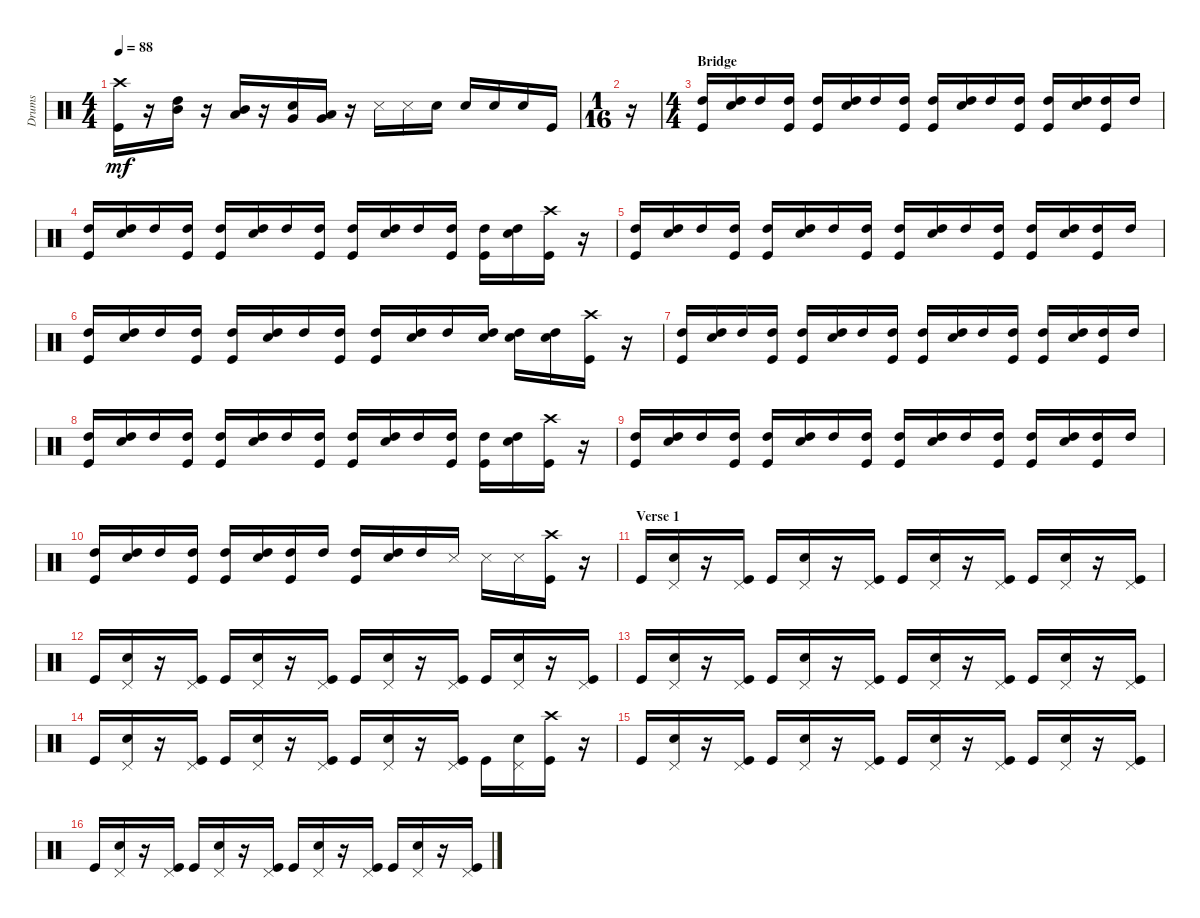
\track ("Drums" "Drums") {instrument percussion}
\staff {score}
\articulation defaults
\ts (4 4)
\tempo 88
\clef neutral
\ks c
("Kick (hit)" "Crash high (hit)").16{dy mf} r.16 ("High Tom (hit)" "Mid Tom (hit)").16 r.16 ("Mid Tom (hit)" "Low Tom (hit)").16 r.16 ("Snare (hit) 2" "Very Low Tom (hit)").16 ("Very Low Tom (hit)" "Low Tom (hit)").16 r.16 "Snare (side stick) 3".16 "Snare (side stick) 3".16 "Snare (hit) 2".16 "Snare (hit) 2".16 "Snare (hit) 2".16 "Snare (hit) 2".16 "Kick (hit)".16 |
\ts (1 16)
r.16 |
\ts (4 4)
\section ("" "Bridge")
("Kick (hit)" "High Tom (hit)").16 ("Snare (hit) 2" "High Tom (hit)").16 "High Tom (hit)".16 ("Kick (hit)" "High Tom (hit)").16 ("Kick (hit)" "High Tom (hit)").16 ("High Tom (hit)" "Snare (hit) 2").16 "High Tom (hit)".16 ("High Tom (hit)" "Kick (hit)").16 ("High Tom (hit)" "Kick (hit)").16 ("High Tom (hit)" "Snare (hit) 2").16 "High Tom (hit)".16 ("Kick (hit)" "High Tom (hit)").16 ("Kick (hit)" "High Tom (hit)").16 ("High Tom (hit)" "Snare (hit) 2").16 ("High Tom (hit)" "Kick (hit)").16 "High Tom (hit)".16 |
("Kick (hit)" "High Tom (hit)").16 ("Snare (hit) 2" "High Tom (hit)").16 "High Tom (hit)".16 ("Kick (hit)" "High Tom (hit)").16 ("Kick (hit)" "High Tom (hit)").16 ("High Tom (hit)" "Snare (hit) 2").16 "High Tom (hit)".16 ("High Tom (hit)" "Kick (hit)").16 ("High Tom (hit)" "Kick (hit)").16 ("High Tom (hit)" "Snare (hit) 2").16 "High Tom (hit)".16 ("Kick (hit)" "High Tom (hit)").16 ("Kick (hit)" "High Tom (hit)").16 ("High Tom (hit)" "Snare (hit) 2").16 ("Kick (hit)" "Crash high (hit)").16 r.16 |
("Kick (hit)" "High Tom (hit)").16 ("Snare (hit) 2" "High Tom (hit)").16 "High Tom (hit)".16 ("Kick (hit)" "High Tom (hit)").16 ("Kick (hit)" "High Tom (hit)").16 ("High Tom (hit)" "Snare (hit) 2").16 "High Tom (hit)".16 ("High Tom (hit)" "Kick (hit)").16 ("High Tom (hit)" "Kick (hit)").16 ("High Tom (hit)" "Snare (hit) 2").16 "High Tom (hit)".16 ("Kick (hit)" "High Tom (hit)").16 ("Kick (hit)" "High Tom (hit)").16 ("High Tom (hit)" "Snare (hit) 2").16 ("Kick (hit)" "High Tom (hit)").16 "High Tom (hit)".16 |
("Kick (hit)" "High Tom (hit)").16 ("Snare (hit) 2" "High Tom (hit)").16 "High Tom (hit)".16 ("Kick (hit)" "High Tom (hit)").16 ("Kick (hit)" "High Tom (hit)").16 ("High Tom (hit)" "Snare (hit) 2").16 "High Tom (hit)".16 ("High Tom (hit)" "Kick (hit)").16 ("High Tom (hit)" "Kick (hit)").16 ("High Tom (hit)" "Snare (hit) 2").16 "High Tom (hit)".16 ("High Tom (hit)" "Snare (hit) 2").16 ("High Tom (hit)" "Snare (hit) 2").16 ("High Tom (hit)" "Snare (hit) 2").16 ("Kick (hit)" "Crash high (hit)").16 r.16 |
("Kick (hit)" "High Tom (hit)").16 ("Snare (hit) 2" "High Tom (hit)").16 "High Tom (hit)".16 ("Kick (hit)" "High Tom (hit)").16 ("Kick (hit)" "High Tom (hit)").16 ("High Tom (hit)" "Snare (hit) 2").16 "High Tom (hit)".16 ("High Tom (hit)" "Kick (hit)").16 ("High Tom (hit)" "Kick (hit)").16 ("High Tom (hit)" "Snare (hit) 2").16 "High Tom (hit)".16 ("Kick (hit)" "High Tom (hit)").16 ("Kick (hit)" "High Tom (hit)").16 ("High Tom (hit)" "Snare (hit) 2").16 ("High Tom (hit)" "Kick (hit)").16 "High Tom (hit)".16 |
("Kick (hit)" "High Tom (hit)").16 ("Snare (hit) 2" "High Tom (hit)").16 "High Tom (hit)".16 ("Kick (hit)" "High Tom (hit)").16 ("Kick (hit)" "High Tom (hit)").16 ("High Tom (hit)" "Snare (hit) 2").16 "High Tom (hit)".16 ("High Tom (hit)" "Kick (hit)").16 ("High Tom (hit)" "Kick (hit)").16 ("High Tom (hit)" "Snare (hit) 2").16 "High Tom (hit)".16 ("Kick (hit)" "High Tom (hit)").16 ("Kick (hit)" "High Tom (hit)").16 ("High Tom (hit)" "Snare (hit) 2").16 ("Kick (hit)" "Crash high (hit)").16 r.16 |
("Kick (hit)" "High Tom (hit)").16 ("Snare (hit) 2" "High Tom (hit)").16 "High Tom (hit)".16 ("Kick (hit)" "High Tom (hit)").16 ("Kick (hit)" "High Tom (hit)").16 ("High Tom (hit)" "Snare (hit) 2").16 "High Tom (hit)".16 ("High Tom (hit)" "Kick (hit)").16 ("High Tom (hit)" "Kick (hit)").16 ("High Tom (hit)" "Snare (hit) 2").16 "High Tom (hit)".16 ("Kick (hit)" "High Tom (hit)").16 ("Kick (hit)" "High Tom (hit)").16 ("High Tom (hit)" "Snare (hit) 2").16 ("Kick (hit)" "High Tom (hit)").16 "High Tom (hit)".16 |
("Kick (hit)" "High Tom (hit)").16 ("Snare (hit) 2" "High Tom (hit)").16 "High Tom (hit)".16 ("Kick (hit)" "High Tom (hit)").16 ("Kick (hit)" "High Tom (hit)").16 ("High Tom (hit)" "Snare (hit) 2").16 ("Kick (hit)" "High Tom (hit)").16 "High Tom (hit)".16 ("High Tom (hit)" "Kick (hit)").16 ("High Tom (hit)" "Snare (hit) 2").16 "High Tom (hit)".16 "Snare (side stick) 3".16 "Snare (side stick) 3".16 "Snare (side stick) 3".16 ("Kick (hit)" "Crash high (hit)").16 r.16 |
\section ("" "Verse 1")
"Kick (hit)".16 ("Snare (hit) 2" "Pedal Hi-Hat (hit)").16 r.16 ("Kick (hit)" "Pedal Hi-Hat (hit)").16 "Kick (hit)".16 ("Snare (hit) 2" "Pedal Hi-Hat (hit)").16 r.16 ("Pedal Hi-Hat (hit)" "Kick (hit)").16 "Kick (hit)".16 ("Snare (hit) 2" "Pedal Hi-Hat (hit)").16 r.16 ("Kick (hit)" "Pedal Hi-Hat (hit)").16 "Kick (hit)".16 ("Snare (hit) 2" "Pedal Hi-Hat (hit)").16 r.16 ("Kick (hit)" "Pedal Hi-Hat (hit)").16 |
"Kick (hit)".16 ("Snare (hit) 2" "Pedal Hi-Hat (hit)").16 r.16 ("Kick (hit)" "Pedal Hi-Hat (hit)").16 "Kick (hit)".16 ("Snare (hit) 2" "Pedal Hi-Hat (hit)").16 r.16 ("Pedal Hi-Hat (hit)" "Kick (hit)").16 "Kick (hit)".16 ("Snare (hit) 2" "Pedal Hi-Hat (hit)").16 r.16 ("Kick (hit)" "Pedal Hi-Hat (hit)").16 "Kick (hit)".16 ("Snare (hit) 2" "Pedal Hi-Hat (hit)").16 r.16 ("Kick (hit)" "Pedal Hi-Hat (hit)").16 |
"Kick (hit)".16 ("Snare (hit) 2" "Pedal Hi-Hat (hit)").16 r.16 ("Kick (hit)" "Pedal Hi-Hat (hit)").16 "Kick (hit)".16 ("Snare (hit) 2" "Pedal Hi-Hat (hit)").16 r.16 ("Pedal Hi-Hat (hit)" "Kick (hit)").16 "Kick (hit)".16 ("Snare (hit) 2" "Pedal Hi-Hat (hit)").16 r.16 ("Kick (hit)" "Pedal Hi-Hat (hit)").16 "Kick (hit)".16 ("Snare (hit) 2" "Pedal Hi-Hat (hit)").16 r.16 ("Kick (hit)" "Pedal Hi-Hat (hit)").16 |
"Kick (hit)".16 ("Snare (hit) 2" "Pedal Hi-Hat (hit)").16 r.16 ("Kick (hit)" "Pedal Hi-Hat (hit)").16 "Kick (hit)".16 ("Snare (hit) 2" "Pedal Hi-Hat (hit)").16 r.16 ("Pedal Hi-Hat (hit)" "Kick (hit)").16 "Kick (hit)".16 ("Snare (hit) 2" "Pedal Hi-Hat (hit)").16 r.16 ("Kick (hit)" "Pedal Hi-Hat (hit)").16 "Kick (hit)".16 ("Snare (hit) 2" "Pedal Hi-Hat (hit)").16 ("Kick (hit)" "Crash high (hit)").16 r.16 |
"Kick (hit)".16 ("Snare (hit) 2" "Pedal Hi-Hat (hit)").16 r.16 ("Kick (hit)" "Pedal Hi-Hat (hit)").16 "Kick (hit)".16 ("Snare (hit) 2" "Pedal Hi-Hat (hit)").16 r.16 ("Pedal Hi-Hat (hit)" "Kick (hit)").16 "Kick (hit)".16 ("Snare (hit) 2" "Pedal Hi-Hat (hit)").16 r.16 ("Kick (hit)" "Pedal Hi-Hat (hit)").16 "Kick (hit)".16 ("Snare (hit) 2" "Pedal Hi-Hat (hit)").16 r.16 ("Kick (hit)" "Pedal Hi-Hat (hit)").16 |
"Kick (hit)".16 ("Snare (hit) 2" "Pedal Hi-Hat (hit)").16 r.16 ("Kick (hit)" "Pedal Hi-Hat (hit)").16 "Kick (hit)".16 ("Snare (hit) 2" "Pedal Hi-Hat (hit)").16 r.16 ("Pedal Hi-Hat (hit)" "Kick (hit)").16 "Kick (hit)".16 ("Snare (hit) 2" "Pedal Hi-Hat (hit)").16 r.16 ("Kick (hit)" "Pedal Hi-Hat (hit)").16 "Kick (hit)".16 ("Snare (hit) 2" "Pedal Hi-Hat (hit)").16 r.16 ("Kick (hit)" "Pedal Hi-Hat (hit)").16
